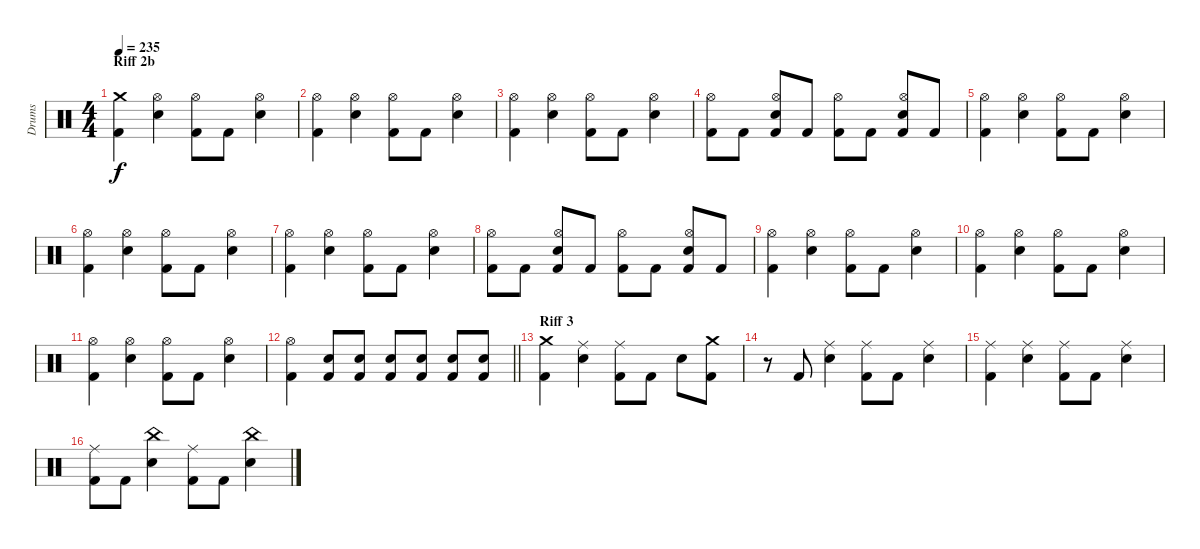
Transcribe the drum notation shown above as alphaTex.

\track ("Drums" "Drums") {instrument percussion}
\staff {score}
\articulation defaults
\ts (4 4)
\section ("" "Riff 2b")
\tempo 235
\clef neutral
\ks aminor
("Crash medium (hit)" "Kick (hit) 2").4{dy f} ("Hi-Hat (open)" "Electric Snare (hit)").4 ("Hi-Hat (open)" "Kick (hit) 2").8 "Kick (hit) 2".8 ("Electric Snare (hit)" "Hi-Hat (open)").4 |
("Hi-Hat (open)" "Kick (hit) 2").4 ("Hi-Hat (open)" "Electric Snare (hit)").4 ("Hi-Hat (open)" "Kick (hit) 2").8 "Kick (hit) 2".8 ("Electric Snare (hit)" "Hi-Hat (open)").4 |
("Hi-Hat (open)" "Kick (hit) 2").4 ("Hi-Hat (open)" "Electric Snare (hit)").4 ("Hi-Hat (open)" "Kick (hit) 2").8 "Kick (hit) 2".8 ("Electric Snare (hit)" "Hi-Hat (open)").4 |
("Hi-Hat (open)" "Kick (hit) 2").8 "Kick (hit) 2".8 ("Hi-Hat (open)" "Kick (hit) 2" "Electric Snare (hit)").8 "Kick (hit) 2".8 ("Hi-Hat (open)" "Kick (hit) 2").8 "Kick (hit) 2".8 ("Hi-Hat (open)" "Kick (hit) 2" "Electric Snare (hit)").8 "Kick (hit) 2".8 |
("Hi-Hat (open)" "Kick (hit) 2").4 ("Hi-Hat (open)" "Electric Snare (hit)").4 ("Hi-Hat (open)" "Kick (hit) 2").8 "Kick (hit) 2".8 ("Electric Snare (hit)" "Hi-Hat (open)").4 |
("Hi-Hat (open)" "Kick (hit) 2").4 ("Hi-Hat (open)" "Electric Snare (hit)").4 ("Hi-Hat (open)" "Kick (hit) 2").8 "Kick (hit) 2".8 ("Electric Snare (hit)" "Hi-Hat (open)").4 |
("Hi-Hat (open)" "Kick (hit) 2").4 ("Hi-Hat (open)" "Electric Snare (hit)").4 ("Hi-Hat (open)" "Kick (hit) 2").8 "Kick (hit) 2".8 ("Electric Snare (hit)" "Hi-Hat (open)").4 |
("Hi-Hat (open)" "Kick (hit) 2").8 "Kick (hit) 2".8 ("Hi-Hat (open)" "Kick (hit) 2" "Electric Snare (hit)").8 "Kick (hit) 2".8 ("Hi-Hat (open)" "Kick (hit) 2").8 "Kick (hit) 2".8 ("Hi-Hat (open)" "Kick (hit) 2" "Electric Snare (hit)").8 "Kick (hit) 2".8 |
("Hi-Hat (open)" "Kick (hit) 2").4 ("Hi-Hat (open)" "Electric Snare (hit)").4 ("Hi-Hat (open)" "Kick (hit) 2").8 "Kick (hit) 2".8 ("Electric Snare (hit)" "Hi-Hat (open)").4 |
("Hi-Hat (open)" "Kick (hit) 2").4 ("Hi-Hat (open)" "Electric Snare (hit)").4 ("Hi-Hat (open)" "Kick (hit) 2").8 "Kick (hit) 2".8 ("Electric Snare (hit)" "Hi-Hat (open)").4 |
("Hi-Hat (open)" "Kick (hit) 2").4 ("Hi-Hat (open)" "Electric Snare (hit)").4 ("Hi-Hat (open)" "Kick (hit) 2").8 "Kick (hit) 2".8 ("Electric Snare (hit)" "Hi-Hat (open)").4 |
\barLineRight lightlight
("Hi-Hat (open)" "Kick (hit) 2").4 ("Kick (hit) 2" "Electric Snare (hit)").8 ("Kick (hit) 2" "Electric Snare (hit)").8 ("Kick (hit) 2" "Electric Snare (hit)").8 ("Kick (hit) 2" "Electric Snare (hit)").8 ("Kick (hit) 2" "Electric Snare (hit)").8 ("Kick (hit) 2" "Electric Snare (hit)").8 |
\section ("" "Riff 3")
("Crash medium (hit)" "Kick (hit) 2").4 ("Ride (middle)" "Electric Snare (hit)").4 ("Ride (middle)" "Kick (hit) 2").8 "Kick (hit) 2".8 "Electric Snare (hit)".8 ("Kick (hit) 2" "Crash medium (hit)").8 |
r.8 "Kick (hit) 2".8 ("Electric Snare (hit)" "Ride (middle)").4 ("Kick (hit) 2" "Ride (middle)").8 "Kick (hit) 2".8 ("Electric Snare (hit)" "Ride (middle)").4 |
("Ride (middle)" "Kick (hit) 2").4 ("Ride (middle)" "Electric Snare (hit)").4 ("Ride (middle)" "Kick (hit) 2").8 "Kick (hit) 2".8 ("Ride (middle)" "Electric Snare (hit)").4 |
("Ride (middle)" "Kick (hit) 2").8 "Kick (hit) 2".8 ("China (hit)" "Electric Snare (hit)").4 ("Ride (middle)" "Kick (hit) 2").8 "Kick (hit) 2".8 ("China (hit)" "Electric Snare (hit)").4
